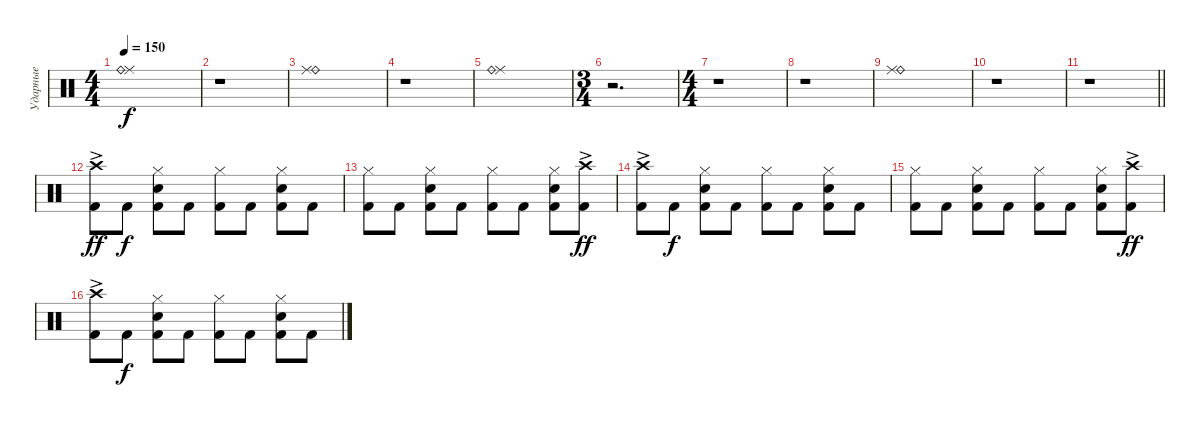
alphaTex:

\track ("Ударные" "Ударные") {instrument percussion}
\staff
\articulation defaults
\ts (4 4)
\tempo 150
\clef neutral
\ks c
("Ride (middle)" "Ride (bell)").1{dy f} |
r.1 |
("Ride (bell)" "Ride (middle)").1 |
r.1 |
("Ride (middle)" "Ride (bell)").1 |
\ts (3 4)
r.2{d} |
\ts (4 4)
r.1 |
r.1 |
("Ride (bell)" "Ride (middle)").1 |
r.1 |
\barLineRight lightlight
r.1 |
("Kick (hit) 2" "Crash high (hit)"{ac}).8{dy ff} "Kick (hit) 2".8{dy f} ("Kick (hit) 2" "Snare (hit) 2" "Hi-Hat (closed)").8 "Kick (hit) 2".8 ("Kick (hit) 2" "Hi-Hat (closed)").8 "Kick (hit) 2".8 ("Kick (hit) 2" "Snare (hit) 2" "Hi-Hat (closed)").8 "Kick (hit) 2".8 |
("Kick (hit) 2" "Hi-Hat (closed)").8 "Kick (hit) 2".8 ("Kick (hit) 2" "Snare (hit) 2" "Hi-Hat (closed)").8 "Kick (hit) 2".8 ("Kick (hit) 2" "Hi-Hat (closed)").8 "Kick (hit) 2".8 ("Kick (hit) 2" "Snare (hit) 2" "Hi-Hat (closed)").8 ("Kick (hit) 2" "Crash high (hit)"{ac}).8{dy ff} |
("Kick (hit) 2" "Crash high (hit)"{ac}).8 "Kick (hit) 2".8{dy f} ("Kick (hit) 2" "Snare (hit) 2" "Hi-Hat (closed)").8 "Kick (hit) 2".8 ("Kick (hit) 2" "Hi-Hat (closed)").8 "Kick (hit) 2".8 ("Kick (hit) 2" "Snare (hit) 2" "Hi-Hat (closed)").8 "Kick (hit) 2".8 |
("Kick (hit) 2" "Hi-Hat (closed)").8 "Kick (hit) 2".8 ("Kick (hit) 2" "Snare (hit) 2" "Hi-Hat (closed)").8 "Kick (hit) 2".8 ("Kick (hit) 2" "Hi-Hat (closed)").8 "Kick (hit) 2".8 ("Kick (hit) 2" "Snare (hit) 2" "Hi-Hat (closed)").8 ("Kick (hit) 2" "Crash high (hit)"{ac}).8{dy ff} |
("Kick (hit) 2" "Crash high (hit)"{ac}).8 "Kick (hit) 2".8{dy f} ("Kick (hit) 2" "Snare (hit) 2" "Hi-Hat (closed)").8 "Kick (hit) 2".8 ("Kick (hit) 2" "Hi-Hat (closed)").8 "Kick (hit) 2".8 ("Kick (hit) 2" "Snare (hit) 2" "Hi-Hat (closed)").8 "Kick (hit) 2".8
